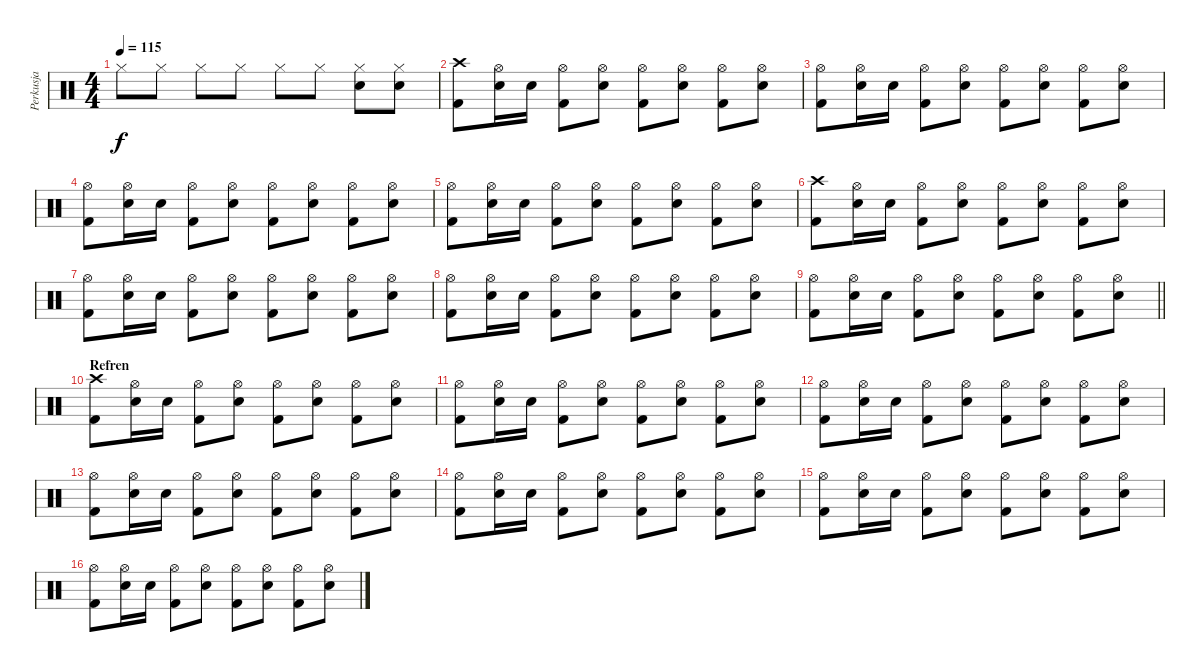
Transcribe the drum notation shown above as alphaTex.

\track ("Perkusja" "Perkusja") {instrument percussion}
\staff {score}
\articulation defaults
\ts (4 4)
\tempo 115
\clef neutral
\ks c "Hi-Hat (closed)".8{dy f} "Hi-Hat (closed)".8 "Hi-Hat (closed)".8 "Hi-Hat (closed)".8 "Hi-Hat (closed)".8 "Hi-Hat (closed)".8
("Snare (hit) 2" "Hi-Hat (closed)").8 ("Snare (hit) 2" "Hi-Hat (closed)").8 |
("Crash high (hit)" "Kick (hit) 2").8 ("Hi-Hat (open)" "Snare (hit) 2").16 "Snare (hit) 2".16 ("Hi-Hat (open)" "Kick (hit) 2").8 ("Hi-Hat (open)" "Snare (hit) 2").8 ("Hi-Hat (open)" "Kick (hit) 2").8 ("Hi-Hat (open)" "Snare (hit) 2").8 ("Hi-Hat (open)" "Kick (hit) 2").8 ("Hi-Hat (open)" "Snare (hit) 2").8 |
("Hi-Hat (open)" "Kick (hit) 2").8 ("Hi-Hat (open)" "Snare (hit) 2").16 "Snare (hit) 2".16 ("Hi-Hat (open)" "Kick (hit) 2").8 ("Hi-Hat (open)" "Snare (hit) 2").8 ("Hi-Hat (open)" "Kick (hit) 2").8 ("Hi-Hat (open)" "Snare (hit) 2").8 ("Hi-Hat (open)" "Kick (hit) 2").8 ("Hi-Hat (open)" "Snare (hit) 2").8 |
("Hi-Hat (open)" "Kick (hit) 2").8 ("Hi-Hat (open)" "Snare (hit) 2").16 "Snare (hit) 2".16 ("Hi-Hat (open)" "Kick (hit) 2").8 ("Hi-Hat (open)" "Snare (hit) 2").8 ("Hi-Hat (open)" "Kick (hit) 2").8 ("Hi-Hat (open)" "Snare (hit) 2").8 ("Hi-Hat (open)" "Kick (hit) 2").8 ("Hi-Hat (open)" "Snare (hit) 2").8 |
("Hi-Hat (open)" "Kick (hit) 2").8 ("Hi-Hat (open)" "Snare (hit) 2").16 "Snare (hit) 2".16 ("Hi-Hat (open)" "Kick (hit) 2").8 ("Hi-Hat (open)" "Snare (hit) 2").8 ("Hi-Hat (open)" "Kick (hit) 2").8 ("Hi-Hat (open)" "Snare (hit) 2").8 ("Hi-Hat (open)" "Kick (hit) 2").8 ("Hi-Hat (open)" "Snare (hit) 2").8 |
("Crash high (hit)" "Kick (hit) 2").8 ("Hi-Hat (open)" "Snare (hit) 2").16 "Snare (hit) 2".16 ("Hi-Hat (open)" "Kick (hit) 2").8 ("Hi-Hat (open)" "Snare (hit) 2").8 ("Hi-Hat (open)" "Kick (hit) 2").8 ("Hi-Hat (open)" "Snare (hit) 2").8 ("Hi-Hat (open)" "Kick (hit) 2").8 ("Hi-Hat (open)" "Snare (hit) 2").8 |
("Hi-Hat (open)" "Kick (hit) 2").8 ("Hi-Hat (open)" "Snare (hit) 2").16 "Snare (hit) 2".16 ("Hi-Hat (open)" "Kick (hit) 2").8 ("Hi-Hat (open)" "Snare (hit) 2").8 ("Hi-Hat (open)" "Kick (hit) 2").8 ("Hi-Hat (open)" "Snare (hit) 2").8 ("Hi-Hat (open)" "Kick (hit) 2").8 ("Hi-Hat (open)" "Snare (hit) 2").8 |
("Hi-Hat (open)" "Kick (hit) 2").8 ("Hi-Hat (open)" "Snare (hit) 2").16 "Snare (hit) 2".16 ("Hi-Hat (open)" "Kick (hit) 2").8 ("Hi-Hat (open)" "Snare (hit) 2").8 ("Hi-Hat (open)" "Kick (hit) 2").8 ("Hi-Hat (open)" "Snare (hit) 2").8 ("Hi-Hat (open)" "Kick (hit) 2").8 ("Hi-Hat (open)" "Snare (hit) 2").8 |
\barLineRight lightlight
("Hi-Hat (open)" "Kick (hit) 2").8 ("Hi-Hat (open)" "Snare (hit) 2").16 "Snare (hit) 2".16 ("Hi-Hat (open)" "Kick (hit) 2").8 ("Hi-Hat (open)" "Snare (hit) 2").8 ("Hi-Hat (open)" "Kick (hit) 2").8 ("Hi-Hat (open)" "Snare (hit) 2").8 ("Hi-Hat (open)" "Kick (hit) 2").8 ("Hi-Hat (open)" "Snare (hit) 2").8 |
\section ("" "Refren")
("Crash high (hit)" "Kick (hit) 2").8 ("Hi-Hat (open)" "Snare (hit) 2").16 "Snare (hit) 2".16 ("Hi-Hat (open)" "Kick (hit) 2").8 ("Hi-Hat (open)" "Snare (hit) 2").8 ("Hi-Hat (open)" "Kick (hit) 2").8 ("Hi-Hat (open)" "Snare (hit) 2").8 ("Hi-Hat (open)" "Kick (hit) 2").8 ("Hi-Hat (open)" "Snare (hit) 2").8 |
("Hi-Hat (open)" "Kick (hit) 2").8 ("Hi-Hat (open)" "Snare (hit) 2").16 "Snare (hit) 2".16 ("Hi-Hat (open)" "Kick (hit) 2").8 ("Hi-Hat (open)" "Snare (hit) 2").8 ("Hi-Hat (open)" "Kick (hit) 2").8 ("Hi-Hat (open)" "Snare (hit) 2").8 ("Hi-Hat (open)" "Kick (hit) 2").8 ("Hi-Hat (open)" "Snare (hit) 2").8 |
("Hi-Hat (open)" "Kick (hit) 2").8 ("Hi-Hat (open)" "Snare (hit) 2").16 "Snare (hit) 2".16 ("Hi-Hat (open)" "Kick (hit) 2").8 ("Hi-Hat (open)" "Snare (hit) 2").8 ("Hi-Hat (open)" "Kick (hit) 2").8 ("Hi-Hat (open)" "Snare (hit) 2").8 ("Hi-Hat (open)" "Kick (hit) 2").8 ("Hi-Hat (open)" "Snare (hit) 2").8 |
("Hi-Hat (open)" "Kick (hit) 2").8 ("Hi-Hat (open)" "Snare (hit) 2").16 "Snare (hit) 2".16 ("Hi-Hat (open)" "Kick (hit) 2").8 ("Hi-Hat (open)" "Snare (hit) 2").8 ("Hi-Hat (open)" "Kick (hit) 2").8 ("Hi-Hat (open)" "Snare (hit) 2").8 ("Hi-Hat (open)" "Kick (hit) 2").8 ("Hi-Hat (open)" "Snare (hit) 2").8 |
("Hi-Hat (open)" "Kick (hit) 2").8 ("Hi-Hat (open)" "Snare (hit) 2").16 "Snare (hit) 2".16 ("Hi-Hat (open)" "Kick (hit) 2").8 ("Hi-Hat (open)" "Snare (hit) 2").8 ("Hi-Hat (open)" "Kick (hit) 2").8 ("Hi-Hat (open)" "Snare (hit) 2").8 ("Hi-Hat (open)" "Kick (hit) 2").8 ("Hi-Hat (open)" "Snare (hit) 2").8 |
("Hi-Hat (open)" "Kick (hit) 2").8 ("Hi-Hat (open)" "Snare (hit) 2").16 "Snare (hit) 2".16 ("Hi-Hat (open)" "Kick (hit) 2").8 ("Hi-Hat (open)" "Snare (hit) 2").8 ("Hi-Hat (open)" "Kick (hit) 2").8 ("Hi-Hat (open)" "Snare (hit) 2").8 ("Hi-Hat (open)" "Kick (hit) 2").8 ("Hi-Hat (open)" "Snare (hit) 2").8 |
("Hi-Hat (open)" "Kick (hit) 2").8 ("Hi-Hat (open)" "Snare (hit) 2").16 "Snare (hit) 2".16 ("Hi-Hat (open)" "Kick (hit) 2").8 ("Hi-Hat (open)" "Snare (hit) 2").8 ("Hi-Hat (open)" "Kick (hit) 2").8 ("Hi-Hat (open)" "Snare (hit) 2").8 ("Hi-Hat (open)" "Kick (hit) 2").8 ("Hi-Hat (open)" "Snare (hit) 2").8
